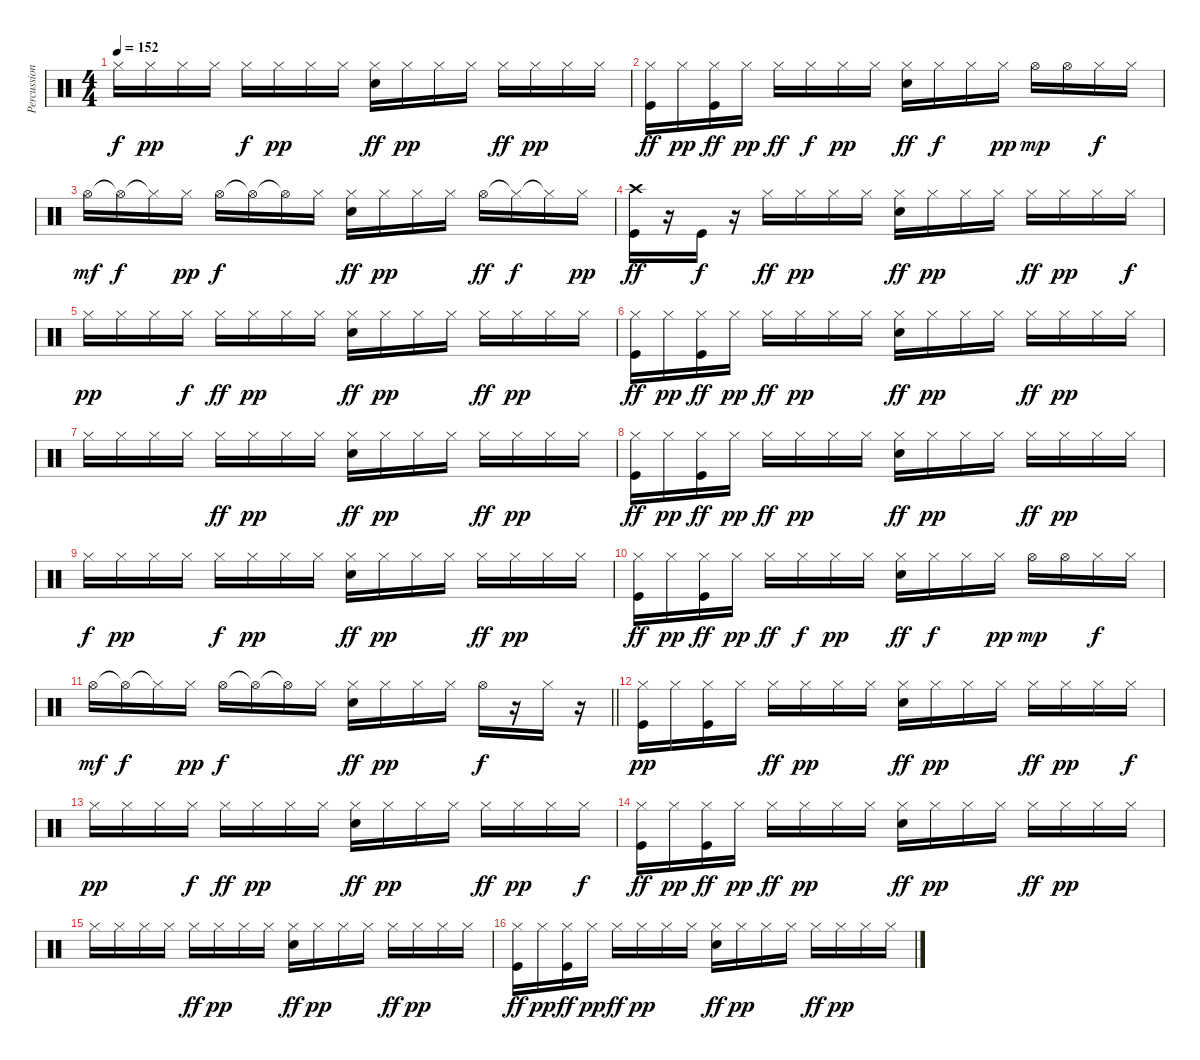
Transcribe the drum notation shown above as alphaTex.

\track ("Percussions" "Percussion") {instrument percussion}
\staff {score}
\articulation defaults
\ts (4 4)
\tempo 152
\clef neutral
\ks c "Hi-Hat (closed)".16{dy f} "Hi-Hat (closed)".16{dy pp} "Hi-Hat (closed)".16 "Hi-Hat (closed)".16 "Hi-Hat (closed)".16{dy f} "Hi-Hat (closed)".16{dy pp} "Hi-Hat (closed)".16 "Hi-Hat (closed)".16
("Hi-Hat (closed)" "Snare (hit) 2").16{dy ff} "Hi-Hat (closed)".16{dy pp} "Hi-Hat (closed)".16 "Hi-Hat (closed)".16 "Hi-Hat (closed)".16{dy ff} "Hi-Hat (closed)".16{dy pp} "Hi-Hat (closed)".16 "Hi-Hat (closed)".16 |
("Hi-Hat (closed)" "Kick (hit)").16{dy ff} "Hi-Hat (closed)".16{dy pp} ("Hi-Hat (closed)" "Kick (hit)").16{dy ff} "Hi-Hat (closed)".16{dy pp} "Hi-Hat (closed)".16{dy ff} "Hi-Hat (closed)".16{dy f} "Hi-Hat (closed)".16{dy pp} "Hi-Hat (closed)".16 ("Hi-Hat (closed)" "Snare (hit) 2").16{dy ff} "Hi-Hat (closed)".16{dy f} "Hi-Hat (closed)".16 "Hi-Hat (closed)".16{dy pp} "Hi-Hat (open)".16{dy mp} "Hi-Hat (open)".16 "Hi-Hat (closed)".16{dy f} "Hi-Hat (closed)".16 |
"Hi-Hat (open)".16{dy mf} "Hi-Hat (open)"{t}.16{dy f} "Hi-Hat (closed)"{t}.16 "Hi-Hat (closed)".16{dy pp} "Hi-Hat (open)".16{dy f} "Hi-Hat (open)"{t}.16 "Hi-Hat (open)"{t}.16 "Hi-Hat (closed)".16 ("Hi-Hat (closed)" "Snare (hit) 2").16{dy ff} "Hi-Hat (closed)".16{dy pp} "Hi-Hat (closed)".16 "Hi-Hat (closed)".16 "Hi-Hat (open)".16{dy ff} "Hi-Hat (closed)"{t}.16{dy f} "Hi-Hat (closed)"{t}.16 "Hi-Hat (closed)".16{dy pp} |
("Crash high (hit)" "Kick (hit)").16{dy ff} r.16 "Kick (hit)".16{dy f} r.16 "Hi-Hat (closed)".16{dy ff} "Hi-Hat (closed)".16{dy pp} "Hi-Hat (closed)".16 "Hi-Hat (closed)".16 ("Hi-Hat (closed)" "Snare (hit) 2").16{dy ff} "Hi-Hat (closed)".16{dy pp} "Hi-Hat (closed)".16 "Hi-Hat (closed)".16 "Hi-Hat (closed)".16{dy ff} "Hi-Hat (closed)".16{dy pp} "Hi-Hat (closed)".16 "Hi-Hat (closed)".16{dy f} |
"Hi-Hat (closed)".16{dy pp} "Hi-Hat (closed)".16 "Hi-Hat (closed)".16 "Hi-Hat (closed)".16{dy f} "Hi-Hat (closed)".16{dy ff} "Hi-Hat (closed)".16{dy pp} "Hi-Hat (closed)".16 "Hi-Hat (closed)".16 ("Hi-Hat (closed)" "Snare (hit) 2").16{dy ff} "Hi-Hat (closed)".16{dy pp} "Hi-Hat (closed)".16 "Hi-Hat (closed)".16 "Hi-Hat (closed)".16{dy ff} "Hi-Hat (closed)".16{dy pp} "Hi-Hat (closed)".16 "Hi-Hat (closed)".16 |
("Hi-Hat (closed)" "Kick (hit)").16{dy ff} "Hi-Hat (closed)".16{dy pp} ("Hi-Hat (closed)" "Kick (hit)").16{dy ff} "Hi-Hat (closed)".16{dy pp} "Hi-Hat (closed)".16{dy ff} "Hi-Hat (closed)".16{dy pp} "Hi-Hat (closed)".16 "Hi-Hat (closed)".16 ("Hi-Hat (closed)" "Snare (hit) 2").16{dy ff} "Hi-Hat (closed)".16{dy pp} "Hi-Hat (closed)".16 "Hi-Hat (closed)".16 "Hi-Hat (closed)".16{dy ff} "Hi-Hat (closed)".16{dy pp} "Hi-Hat (closed)".16 "Hi-Hat (closed)".16 |
"Hi-Hat (closed)".16 "Hi-Hat (closed)".16 "Hi-Hat (closed)".16 "Hi-Hat (closed)".16 "Hi-Hat (closed)".16{dy ff} "Hi-Hat (closed)".16{dy pp} "Hi-Hat (closed)".16 "Hi-Hat (closed)".16 ("Hi-Hat (closed)" "Snare (hit) 2").16{dy ff} "Hi-Hat (closed)".16{dy pp} "Hi-Hat (closed)".16 "Hi-Hat (closed)".16 "Hi-Hat (closed)".16{dy ff} "Hi-Hat (closed)".16{dy pp} "Hi-Hat (closed)".16 "Hi-Hat (closed)".16 |
("Hi-Hat (closed)" "Kick (hit)").16{dy ff} "Hi-Hat (closed)".16{dy pp} ("Hi-Hat (closed)" "Kick (hit)").16{dy ff} "Hi-Hat (closed)".16{dy pp} "Hi-Hat (closed)".16{dy ff} "Hi-Hat (closed)".16{dy pp} "Hi-Hat (closed)".16 "Hi-Hat (closed)".16 ("Hi-Hat (closed)" "Snare (hit) 2").16{dy ff} "Hi-Hat (closed)".16{dy pp} "Hi-Hat (closed)".16 "Hi-Hat (closed)".16 "Hi-Hat (closed)".16{dy ff} "Hi-Hat (closed)".16{dy pp} "Hi-Hat (closed)".16 "Hi-Hat (closed)".16 |
"Hi-Hat (closed)".16{dy f} "Hi-Hat (closed)".16{dy pp} "Hi-Hat (closed)".16 "Hi-Hat (closed)".16 "Hi-Hat (closed)".16{dy f} "Hi-Hat (closed)".16{dy pp} "Hi-Hat (closed)".16 "Hi-Hat (closed)".16 ("Hi-Hat (closed)" "Snare (hit) 2").16{dy ff} "Hi-Hat (closed)".16{dy pp} "Hi-Hat (closed)".16 "Hi-Hat (closed)".16 "Hi-Hat (closed)".16{dy ff} "Hi-Hat (closed)".16{dy pp} "Hi-Hat (closed)".16 "Hi-Hat (closed)".16 |
("Hi-Hat (closed)" "Kick (hit)").16{dy ff} "Hi-Hat (closed)".16{dy pp} ("Hi-Hat (closed)" "Kick (hit)").16{dy ff} "Hi-Hat (closed)".16{dy pp} "Hi-Hat (closed)".16{dy ff} "Hi-Hat (closed)".16{dy f} "Hi-Hat (closed)".16{dy pp} "Hi-Hat (closed)".16 ("Hi-Hat (closed)" "Snare (hit) 2").16{dy ff} "Hi-Hat (closed)".16{dy f} "Hi-Hat (closed)".16 "Hi-Hat (closed)".16{dy pp} "Hi-Hat (open)".16{dy mp} "Hi-Hat (open)".16 "Hi-Hat (closed)".16{dy f} "Hi-Hat (closed)".16 |
\barLineRight lightlight "Hi-Hat (open)".16{dy mf} "Hi-Hat (open)"{t}.16{dy f} "Hi-Hat (closed)"{t}.16 "Hi-Hat (closed)".16{dy pp} "Hi-Hat (open)".16{dy f} "Hi-Hat (open)"{t}.16 "Hi-Hat (open)"{t}.16 "Hi-Hat (closed)".16
("Hi-Hat (closed)" "Snare (hit) 2").16{dy ff} "Hi-Hat (closed)".16{dy pp} "Hi-Hat (closed)".16 "Hi-Hat (closed)".16 "Hi-Hat (open)".16{dy f} r.16 "Hi-Hat (closed)".16 r.16 |
("Hi-Hat (closed)" "Kick (hit)").16{dy pp} "Hi-Hat (closed)".16 ("Hi-Hat (closed)" "Kick (hit)").16 "Hi-Hat (closed)".16 "Hi-Hat (closed)".16{dy ff} "Hi-Hat (closed)".16{dy pp} "Hi-Hat (closed)".16 "Hi-Hat (closed)".16 ("Hi-Hat (closed)" "Snare (hit) 2").16{dy ff} "Hi-Hat (closed)".16{dy pp} "Hi-Hat (closed)".16 "Hi-Hat (closed)".16 "Hi-Hat (closed)".16{dy ff} "Hi-Hat (closed)".16{dy pp} "Hi-Hat (closed)".16 "Hi-Hat (closed)".16{dy f} |
"Hi-Hat (closed)".16{dy pp} "Hi-Hat (closed)".16 "Hi-Hat (closed)".16 "Hi-Hat (closed)".16{dy f} "Hi-Hat (closed)".16{dy ff} "Hi-Hat (closed)".16{dy pp} "Hi-Hat (closed)".16 "Hi-Hat (closed)".16 ("Hi-Hat (closed)" "Snare (hit) 2").16{dy ff} "Hi-Hat (closed)".16{dy pp} "Hi-Hat (closed)".16 "Hi-Hat (closed)".16 "Hi-Hat (closed)".16{dy ff} "Hi-Hat (closed)".16{dy pp} "Hi-Hat (closed)".16 "Hi-Hat (closed)".16{dy f} |
("Hi-Hat (closed)" "Kick (hit)").16{dy ff} "Hi-Hat (closed)".16{dy pp} ("Hi-Hat (closed)" "Kick (hit)").16{dy ff} "Hi-Hat (closed)".16{dy pp} "Hi-Hat (closed)".16{dy ff} "Hi-Hat (closed)".16{dy pp} "Hi-Hat (closed)".16 "Hi-Hat (closed)".16 ("Hi-Hat (closed)" "Snare (hit) 2").16{dy ff} "Hi-Hat (closed)".16{dy pp} "Hi-Hat (closed)".16 "Hi-Hat (closed)".16 "Hi-Hat (closed)".16{dy ff} "Hi-Hat (closed)".16{dy pp} "Hi-Hat (closed)".16 "Hi-Hat (closed)".16 |
"Hi-Hat (closed)".16 "Hi-Hat (closed)".16 "Hi-Hat (closed)".16 "Hi-Hat (closed)".16 "Hi-Hat (closed)".16{dy ff} "Hi-Hat (closed)".16{dy pp} "Hi-Hat (closed)".16 "Hi-Hat (closed)".16 ("Hi-Hat (closed)" "Snare (hit) 2").16{dy ff} "Hi-Hat (closed)".16{dy pp} "Hi-Hat (closed)".16 "Hi-Hat (closed)".16 "Hi-Hat (closed)".16{dy ff} "Hi-Hat (closed)".16{dy pp} "Hi-Hat (closed)".16 "Hi-Hat (closed)".16 |
("Hi-Hat (closed)" "Kick (hit)").16{dy ff} "Hi-Hat (closed)".16{dy pp} ("Hi-Hat (closed)" "Kick (hit)").16{dy ff} "Hi-Hat (closed)".16{dy pp} "Hi-Hat (closed)".16{dy ff} "Hi-Hat (closed)".16{dy pp} "Hi-Hat (closed)".16 "Hi-Hat (closed)".16 ("Hi-Hat (closed)" "Snare (hit) 2").16{dy ff} "Hi-Hat (closed)".16{dy pp} "Hi-Hat (closed)".16 "Hi-Hat (closed)".16 "Hi-Hat (closed)".16{dy ff} "Hi-Hat (closed)".16{dy pp} "Hi-Hat (closed)".16 "Hi-Hat (closed)".16
